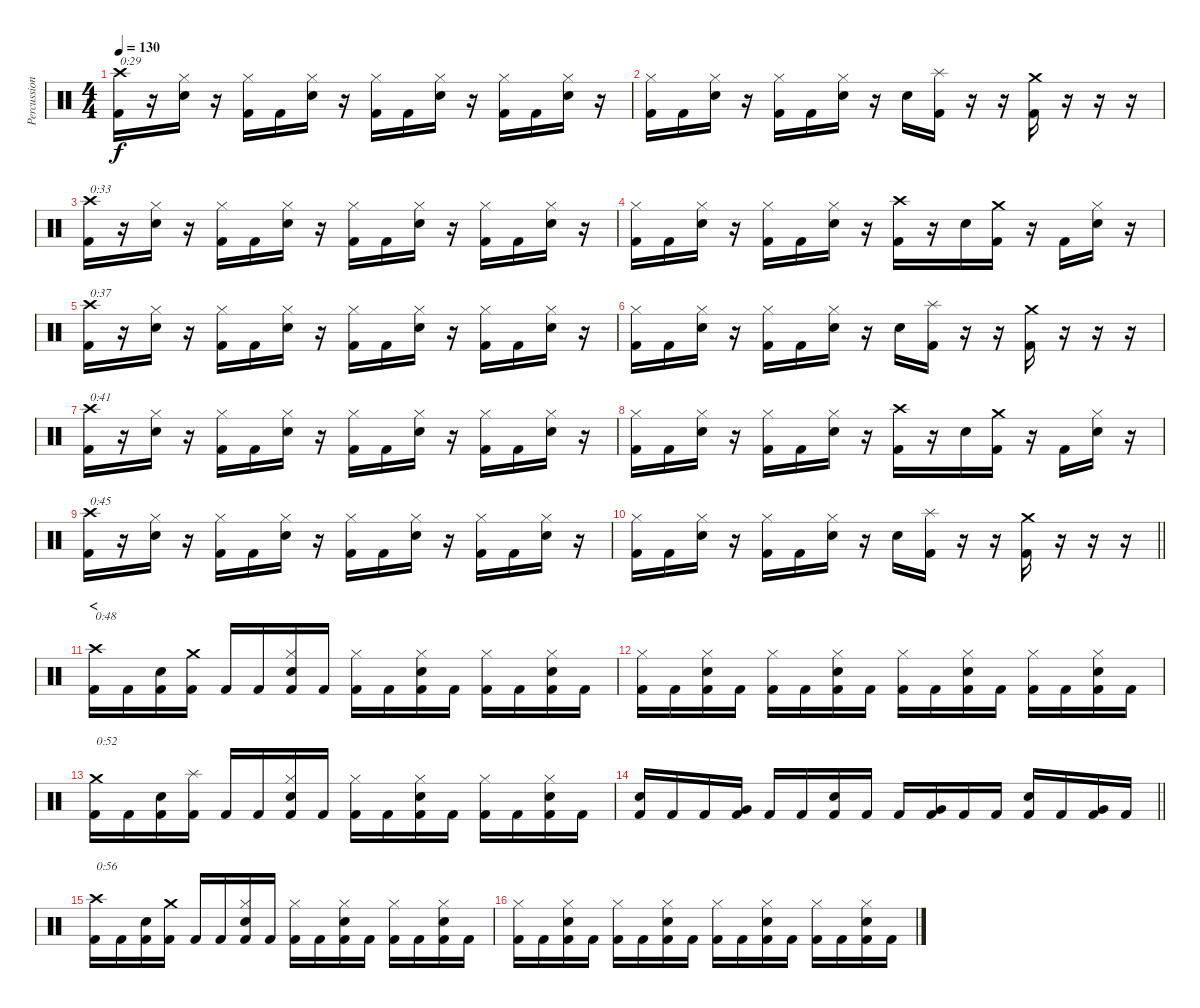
\track ("Percussion" "Percussion") {instrument percussion}
\staff {score}
\articulation defaults
\ts (4 4)
\tempo 130
\clef neutral
\ks c
("Crash high (hit)" "Kick (hit) 2").16{txt "0:29" dy f} r.16 ("Hi-Hat (closed)" "Electric Snare (hit)").16 r.16 ("Hi-Hat (closed)" "Kick (hit) 2").16 "Kick (hit) 2".16 ("Hi-Hat (closed)" "Electric Snare (hit)").16 r.16 ("Hi-Hat (closed)" "Kick (hit) 2").16 "Kick (hit) 2".16 ("Hi-Hat (closed)" "Electric Snare (hit)").16 r.16 ("Hi-Hat (closed)" "Kick (hit) 2").16 "Kick (hit) 2".16 ("Hi-Hat (closed)" "Electric Snare (hit)").16 r.16 |
("Hi-Hat (closed)" "Kick (hit) 2").16 "Kick (hit) 2".16 ("Hi-Hat (closed)" "Electric Snare (hit)").16 r.16 ("Hi-Hat (closed)" "Kick (hit) 2").16 "Kick (hit) 2".16 ("Hi-Hat (closed)" "Electric Snare (hit)").16 r.16 "Electric Snare (hit)".16 ("Splash (hit)" "Kick (hit) 2").16 r.16 r.16 ("Crash medium (hit)" "Kick (hit) 2").16 r.16 r.16 r.16 |
("Crash high (hit)" "Kick (hit) 2").16{txt "0:33"} r.16 ("Hi-Hat (closed)" "Electric Snare (hit)").16 r.16 ("Hi-Hat (closed)" "Kick (hit) 2").16 "Kick (hit) 2".16 ("Hi-Hat (closed)" "Electric Snare (hit)").16 r.16 ("Hi-Hat (closed)" "Kick (hit) 2").16 "Kick (hit) 2".16 ("Hi-Hat (closed)" "Electric Snare (hit)").16 r.16 ("Hi-Hat (closed)" "Kick (hit) 2").16 "Kick (hit) 2".16 ("Hi-Hat (closed)" "Electric Snare (hit)").16 r.16 |
("Hi-Hat (closed)" "Kick (hit) 2").16 "Kick (hit) 2".16 ("Hi-Hat (closed)" "Electric Snare (hit)").16 r.16 ("Hi-Hat (closed)" "Kick (hit) 2").16 "Kick (hit) 2".16 ("Hi-Hat (closed)" "Electric Snare (hit)").16 r.16 ("Crash high (hit)" "Kick (hit) 2").16 r.16 "Electric Snare (hit)".16 ("Crash medium (hit)" "Kick (hit) 2").16 r.16 "Kick (hit) 2".16 ("Hi-Hat (closed)" "Electric Snare (hit)").16 r.16 |
("Crash high (hit)" "Kick (hit) 2").16{txt "0:37"} r.16 ("Hi-Hat (closed)" "Electric Snare (hit)").16 r.16 ("Hi-Hat (closed)" "Kick (hit) 2").16 "Kick (hit) 2".16 ("Hi-Hat (closed)" "Electric Snare (hit)").16 r.16 ("Hi-Hat (closed)" "Kick (hit) 2").16 "Kick (hit) 2".16 ("Hi-Hat (closed)" "Electric Snare (hit)").16 r.16 ("Hi-Hat (closed)" "Kick (hit) 2").16 "Kick (hit) 2".16 ("Hi-Hat (closed)" "Electric Snare (hit)").16 r.16 |
("Hi-Hat (closed)" "Kick (hit) 2").16 "Kick (hit) 2".16 ("Hi-Hat (closed)" "Electric Snare (hit)").16 r.16 ("Hi-Hat (closed)" "Kick (hit) 2").16 "Kick (hit) 2".16 ("Hi-Hat (closed)" "Electric Snare (hit)").16 r.16 "Electric Snare (hit)".16 ("Splash (hit)" "Kick (hit) 2").16 r.16 r.16 ("Crash medium (hit)" "Kick (hit) 2").16 r.16 r.16 r.16 |
("Crash high (hit)" "Kick (hit) 2").16{txt "0:41"} r.16 ("Hi-Hat (closed)" "Electric Snare (hit)").16 r.16 ("Hi-Hat (closed)" "Kick (hit) 2").16 "Kick (hit) 2".16 ("Hi-Hat (closed)" "Electric Snare (hit)").16 r.16 ("Hi-Hat (closed)" "Kick (hit) 2").16 "Kick (hit) 2".16 ("Hi-Hat (closed)" "Electric Snare (hit)").16 r.16 ("Hi-Hat (closed)" "Kick (hit) 2").16 "Kick (hit) 2".16 ("Hi-Hat (closed)" "Electric Snare (hit)").16 r.16 |
("Hi-Hat (closed)" "Kick (hit) 2").16 "Kick (hit) 2".16 ("Hi-Hat (closed)" "Electric Snare (hit)").16 r.16 ("Hi-Hat (closed)" "Kick (hit) 2").16 "Kick (hit) 2".16 ("Hi-Hat (closed)" "Electric Snare (hit)").16 r.16 ("Crash high (hit)" "Kick (hit) 2").16 r.16 "Electric Snare (hit)".16 ("Crash medium (hit)" "Kick (hit) 2").16 r.16 "Kick (hit) 2".16 ("Hi-Hat (closed)" "Electric Snare (hit)").16 r.16 |
("Crash high (hit)" "Kick (hit) 2").16{txt "0:45"} r.16 ("Hi-Hat (closed)" "Electric Snare (hit)").16 r.16 ("Hi-Hat (closed)" "Kick (hit) 2").16 "Kick (hit) 2".16 ("Hi-Hat (closed)" "Electric Snare (hit)").16 r.16 ("Hi-Hat (closed)" "Kick (hit) 2").16 "Kick (hit) 2".16 ("Hi-Hat (closed)" "Electric Snare (hit)").16 r.16 ("Hi-Hat (closed)" "Kick (hit) 2").16 "Kick (hit) 2".16 ("Hi-Hat (closed)" "Electric Snare (hit)").16 r.16 |
\barLineRight lightlight
("Hi-Hat (closed)" "Kick (hit) 2").16 "Kick (hit) 2".16 ("Hi-Hat (closed)" "Electric Snare (hit)").16 r.16 ("Hi-Hat (closed)" "Kick (hit) 2").16 "Kick (hit) 2".16 ("Hi-Hat (closed)" "Electric Snare (hit)").16 r.16 "Electric Snare (hit)".16 ("Splash (hit)" "Kick (hit) 2").16 r.16 r.16 ("Crash medium (hit)" "Kick (hit) 2").16 r.16 r.16 r.16 |
\section ("" "<")
("Crash high (hit)" "Kick (hit) 2").16{txt "0:48"} "Kick (hit) 2".16 ("Electric Snare (hit)" "Kick (hit) 2").16 ("Crash medium (hit)" "Kick (hit) 2").16 "Kick (hit) 2".16 "Kick (hit) 2".16 ("Hi-Hat (closed)" "Electric Snare (hit)" "Kick (hit) 2").16 "Kick (hit) 2".16 ("Hi-Hat (closed)" "Kick (hit) 2").16 "Kick (hit) 2".16 ("Hi-Hat (closed)" "Electric Snare (hit)" "Kick (hit) 2").16 "Kick (hit) 2".16 ("Hi-Hat (closed)" "Kick (hit) 2").16 "Kick (hit) 2".16 ("Hi-Hat (closed)" "Electric Snare (hit)" "Kick (hit) 2").16 "Kick (hit) 2".16 |
("Hi-Hat (closed)" "Kick (hit) 2").16 "Kick (hit) 2".16 ("Hi-Hat (closed)" "Electric Snare (hit)" "Kick (hit) 2").16 "Kick (hit) 2".16 ("Hi-Hat (closed)" "Kick (hit) 2").16 "Kick (hit) 2".16 ("Hi-Hat (closed)" "Electric Snare (hit)" "Kick (hit) 2").16 "Kick (hit) 2".16 ("Hi-Hat (closed)" "Kick (hit) 2").16 "Kick (hit) 2".16 ("Hi-Hat (closed)" "Electric Snare (hit)" "Kick (hit) 2").16 "Kick (hit) 2".16 ("Hi-Hat (closed)" "Kick (hit) 2").16 "Kick (hit) 2".16 ("Hi-Hat (closed)" "Electric Snare (hit)" "Kick (hit) 2").16 "Kick (hit) 2".16 |
("Crash medium (hit)" "Kick (hit) 2").16{txt "0:52"} "Kick (hit) 2".16 ("Electric Snare (hit)" "Kick (hit) 2").16 ("Splash (hit)" "Kick (hit) 2").16 "Kick (hit) 2".16 "Kick (hit) 2".16 ("Hi-Hat (closed)" "Electric Snare (hit)" "Kick (hit) 2").16 "Kick (hit) 2".16 ("Hi-Hat (closed)" "Kick (hit) 2").16 "Kick (hit) 2".16 ("Hi-Hat (closed)" "Electric Snare (hit)" "Kick (hit) 2").16 "Kick (hit) 2".16 ("Hi-Hat (closed)" "Kick (hit) 2").16 "Kick (hit) 2".16 ("Hi-Hat (closed)" "Electric Snare (hit)" "Kick (hit) 2").16 "Kick (hit) 2".16 |
\barLineRight lightlight
("Electric Snare (hit)" "Kick (hit) 2").16 "Kick (hit) 2".16 "Kick (hit) 2".16 ("Very Low Tom (hit)" "Kick (hit) 2").16 "Kick (hit) 2".16 "Kick (hit) 2".16 ("Electric Snare (hit)" "Kick (hit) 2").16 "Kick (hit) 2".16 "Kick (hit) 2".16 ("Very Low Tom (hit)" "Kick (hit) 2").16 "Kick (hit) 2".16 "Kick (hit) 2".16 ("Electric Snare (hit)" "Kick (hit) 2").16 "Kick (hit) 2".16 ("Very Low Tom (hit)" "Kick (hit) 2").16 "Kick (hit) 2".16 |
("Crash high (hit)" "Kick (hit) 2").16{txt "0:56"} "Kick (hit) 2".16 ("Electric Snare (hit)" "Kick (hit) 2").16 ("Crash medium (hit)" "Kick (hit) 2").16 "Kick (hit) 2".16 "Kick (hit) 2".16 ("Hi-Hat (closed)" "Electric Snare (hit)" "Kick (hit) 2").16 "Kick (hit) 2".16 ("Hi-Hat (closed)" "Kick (hit) 2").16 "Kick (hit) 2".16 ("Hi-Hat (closed)" "Electric Snare (hit)" "Kick (hit) 2").16 "Kick (hit) 2".16 ("Hi-Hat (closed)" "Kick (hit) 2").16 "Kick (hit) 2".16 ("Hi-Hat (closed)" "Electric Snare (hit)" "Kick (hit) 2").16 "Kick (hit) 2".16 |
("Hi-Hat (closed)" "Kick (hit) 2").16 "Kick (hit) 2".16 ("Hi-Hat (closed)" "Electric Snare (hit)" "Kick (hit) 2").16 "Kick (hit) 2".16 ("Hi-Hat (closed)" "Kick (hit) 2").16 "Kick (hit) 2".16 ("Hi-Hat (closed)" "Electric Snare (hit)" "Kick (hit) 2").16 "Kick (hit) 2".16 ("Hi-Hat (closed)" "Kick (hit) 2").16 "Kick (hit) 2".16 ("Hi-Hat (closed)" "Electric Snare (hit)" "Kick (hit) 2").16 "Kick (hit) 2".16 ("Hi-Hat (closed)" "Kick (hit) 2").16 "Kick (hit) 2".16 ("Hi-Hat (closed)" "Electric Snare (hit)" "Kick (hit) 2").16 "Kick (hit) 2".16
